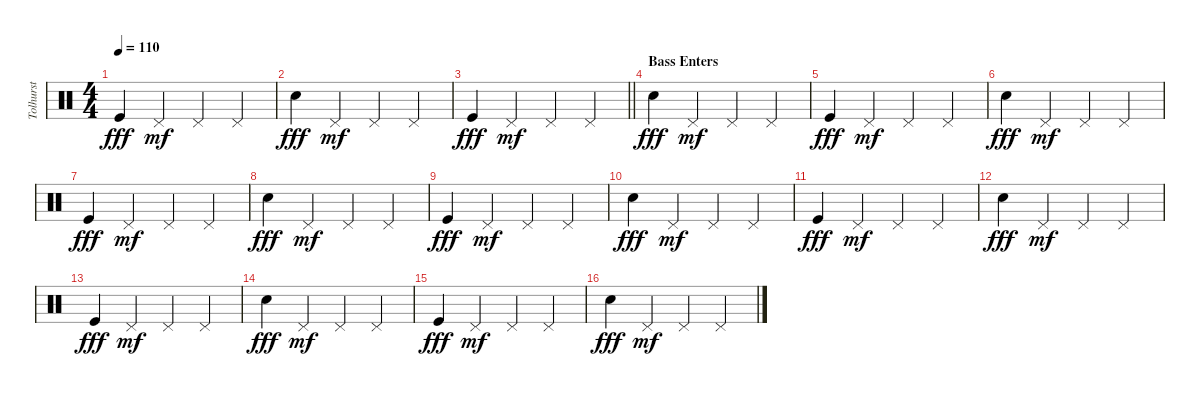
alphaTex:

\track ("Tolhurst" "Tolhurst") {instrument percussion}
\staff {score}
\articulation defaults
\ts (4 4)
\tempo 110
\clef neutral
\ks c "Kick (hit)".4{dy fff} "Pedal Hi-Hat (hit)".4{dy mf} "Pedal Hi-Hat (hit)".4 "Pedal Hi-Hat (hit)".4
|
"Electric Snare (hit)".4{dy fff} "Pedal Hi-Hat (hit)".4{dy mf} "Pedal Hi-Hat (hit)".4 "Pedal Hi-Hat (hit)".4 |
\barLineRight lightlight "Kick (hit)".4{dy fff} "Pedal Hi-Hat (hit)".4{dy mf} "Pedal Hi-Hat (hit)".4 "Pedal Hi-Hat (hit)".4
|
\section ("" "Bass Enters")
"Electric Snare (hit)".4{dy fff} "Pedal Hi-Hat (hit)".4{dy mf} "Pedal Hi-Hat (hit)".4 "Pedal Hi-Hat (hit)".4 |
"Kick (hit)".4{dy fff} "Pedal Hi-Hat (hit)".4{dy mf} "Pedal Hi-Hat (hit)".4 "Pedal Hi-Hat (hit)".4 |
"Electric Snare (hit)".4{dy fff} "Pedal Hi-Hat (hit)".4{dy mf} "Pedal Hi-Hat (hit)".4 "Pedal Hi-Hat (hit)".4 |
"Kick (hit)".4{dy fff} "Pedal Hi-Hat (hit)".4{dy mf} "Pedal Hi-Hat (hit)".4 "Pedal Hi-Hat (hit)".4 |
"Electric Snare (hit)".4{dy fff} "Pedal Hi-Hat (hit)".4{dy mf} "Pedal Hi-Hat (hit)".4 "Pedal Hi-Hat (hit)".4 |
"Kick (hit)".4{dy fff} "Pedal Hi-Hat (hit)".4{dy mf} "Pedal Hi-Hat (hit)".4 "Pedal Hi-Hat (hit)".4 |
"Electric Snare (hit)".4{dy fff} "Pedal Hi-Hat (hit)".4{dy mf} "Pedal Hi-Hat (hit)".4 "Pedal Hi-Hat (hit)".4 |
"Kick (hit)".4{dy fff} "Pedal Hi-Hat (hit)".4{dy mf} "Pedal Hi-Hat (hit)".4 "Pedal Hi-Hat (hit)".4 |
"Electric Snare (hit)".4{dy fff} "Pedal Hi-Hat (hit)".4{dy mf} "Pedal Hi-Hat (hit)".4 "Pedal Hi-Hat (hit)".4 |
"Kick (hit)".4{dy fff} "Pedal Hi-Hat (hit)".4{dy mf} "Pedal Hi-Hat (hit)".4 "Pedal Hi-Hat (hit)".4 |
"Electric Snare (hit)".4{dy fff} "Pedal Hi-Hat (hit)".4{dy mf} "Pedal Hi-Hat (hit)".4 "Pedal Hi-Hat (hit)".4 |
"Kick (hit)".4{dy fff} "Pedal Hi-Hat (hit)".4{dy mf} "Pedal Hi-Hat (hit)".4 "Pedal Hi-Hat (hit)".4 |
"Electric Snare (hit)".4{dy fff} "Pedal Hi-Hat (hit)".4{dy mf} "Pedal Hi-Hat (hit)".4 "Pedal Hi-Hat (hit)".4
